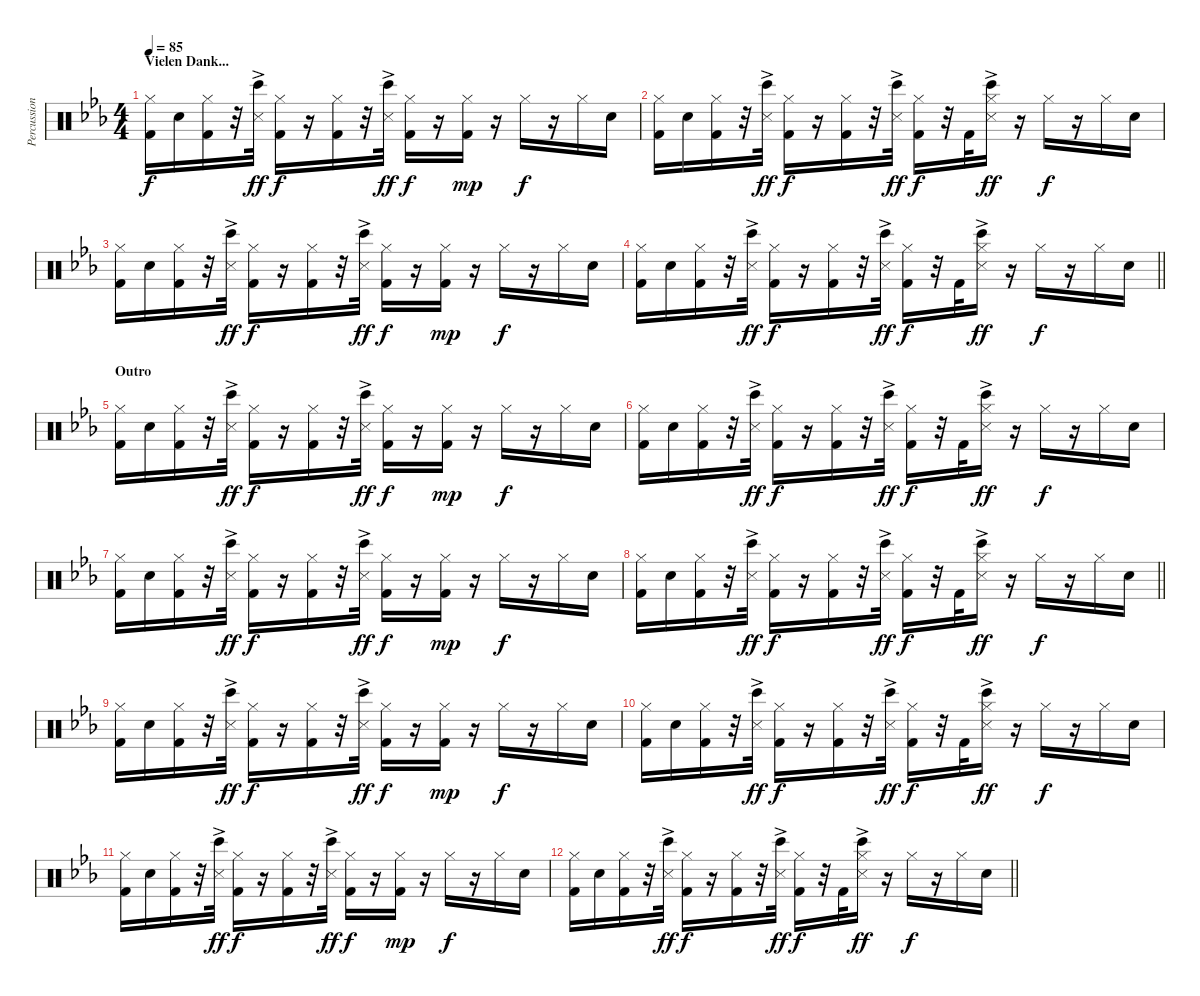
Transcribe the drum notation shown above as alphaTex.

\track ("Percussion" "Percussion") {instrument percussion}
\staff {score}
\articulation defaults
\ts (4 4)
\section ("" "Vielen Dank...")
\tempo 85
\clef neutral
\ks cminor
("Hi-Hat (closed)" "Kick (hit) 2").16{dy f} "Snare (hit) 2".16 ("Hi-Hat (closed)" "Kick (hit) 2").16 r.32 ("Bongo High (hit)" "Metronome (hit)"{ac}).32{dy ff} ("Hi-Hat (closed)" "Kick (hit) 2").16{dy f} r.16 ("Hi-Hat (closed)" "Kick (hit) 2").16 r.32 ("Bongo High (hit)" "Metronome (hit)"{ac}).32{dy ff} ("Hi-Hat (closed)" "Kick (hit) 2").16{dy f} r.16 ("Hi-Hat (closed)" "Kick (hit) 2").16{dy mp} r.16 "Hi-Hat (closed)".16{dy f} r.16 "Hi-Hat (closed)".16 "Snare (hit) 2".16 |
("Hi-Hat (closed)" "Kick (hit) 2").16 "Snare (hit) 2".16 ("Hi-Hat (closed)" "Kick (hit) 2").16 r.32 ("Bongo High (hit)" "Metronome (hit)"{ac}).32{dy ff} ("Hi-Hat (closed)" "Kick (hit) 2").16{dy f} r.16 ("Hi-Hat (closed)" "Kick (hit) 2").16 r.32 ("Bongo High (hit)" "Metronome (hit)"{ac}).32{dy ff} ("Hi-Hat (closed)" "Kick (hit) 2").16{dy f} r.32 "Kick (hit) 2".32 ("Hi-Hat (closed)" "Bongo High (hit)" "Metronome (hit)"{ac}).16{dy ff} r.16 "Hi-Hat (closed)".16{dy f} r.16 "Hi-Hat (closed)".16 "Snare (hit) 2".16 |
("Hi-Hat (closed)" "Kick (hit) 2").16 "Snare (hit) 2".16 ("Hi-Hat (closed)" "Kick (hit) 2").16 r.32 ("Bongo High (hit)" "Metronome (hit)"{ac}).32{dy ff} ("Hi-Hat (closed)" "Kick (hit) 2").16{dy f} r.16 ("Hi-Hat (closed)" "Kick (hit) 2").16 r.32 ("Bongo High (hit)" "Metronome (hit)"{ac}).32{dy ff} ("Hi-Hat (closed)" "Kick (hit) 2").16{dy f} r.16 ("Hi-Hat (closed)" "Kick (hit) 2").16{dy mp} r.16 "Hi-Hat (closed)".16{dy f} r.16 "Hi-Hat (closed)".16 "Snare (hit) 2".16 |
\barLineRight lightlight
("Hi-Hat (closed)" "Kick (hit) 2").16 "Snare (hit) 2".16 ("Hi-Hat (closed)" "Kick (hit) 2").16 r.32 ("Bongo High (hit)" "Metronome (hit)"{ac}).32{dy ff} ("Hi-Hat (closed)" "Kick (hit) 2").16{dy f} r.16 ("Hi-Hat (closed)" "Kick (hit) 2").16 r.32 ("Bongo High (hit)" "Metronome (hit)"{ac}).32{dy ff} ("Hi-Hat (closed)" "Kick (hit) 2").16{dy f} r.32 "Kick (hit) 2".32 ("Hi-Hat (closed)" "Bongo High (hit)" "Metronome (hit)"{ac}).16{dy ff} r.16 "Hi-Hat (closed)".16{dy f} r.16 "Hi-Hat (closed)".16 "Snare (hit) 2".16 |
\section ("" "Outro")
("Hi-Hat (closed)" "Kick (hit) 2").16 "Snare (hit) 2".16 ("Hi-Hat (closed)" "Kick (hit) 2").16 r.32 ("Bongo High (hit)" "Metronome (hit)"{ac}).32{dy ff} ("Hi-Hat (closed)" "Kick (hit) 2").16{dy f} r.16 ("Hi-Hat (closed)" "Kick (hit) 2").16 r.32 ("Bongo High (hit)" "Metronome (hit)"{ac}).32{dy ff} ("Hi-Hat (closed)" "Kick (hit) 2").16{dy f} r.16 ("Hi-Hat (closed)" "Kick (hit) 2").16{dy mp} r.16 "Hi-Hat (closed)".16{dy f} r.16 "Hi-Hat (closed)".16 "Snare (hit) 2".16 |
("Hi-Hat (closed)" "Kick (hit) 2").16 "Snare (hit) 2".16 ("Hi-Hat (closed)" "Kick (hit) 2").16 r.32 ("Bongo High (hit)" "Metronome (hit)"{ac}).32{dy ff} ("Hi-Hat (closed)" "Kick (hit) 2").16{dy f} r.16 ("Hi-Hat (closed)" "Kick (hit) 2").16 r.32 ("Bongo High (hit)" "Metronome (hit)"{ac}).32{dy ff} ("Hi-Hat (closed)" "Kick (hit) 2").16{dy f} r.32 "Kick (hit) 2".32 ("Hi-Hat (closed)" "Bongo High (hit)" "Metronome (hit)"{ac}).16{dy ff} r.16 "Hi-Hat (closed)".16{dy f} r.16 "Hi-Hat (closed)".16 "Snare (hit) 2".16 |
("Hi-Hat (closed)" "Kick (hit) 2").16 "Snare (hit) 2".16 ("Hi-Hat (closed)" "Kick (hit) 2").16 r.32 ("Bongo High (hit)" "Metronome (hit)"{ac}).32{dy ff} ("Hi-Hat (closed)" "Kick (hit) 2").16{dy f} r.16 ("Hi-Hat (closed)" "Kick (hit) 2").16 r.32 ("Bongo High (hit)" "Metronome (hit)"{ac}).32{dy ff} ("Hi-Hat (closed)" "Kick (hit) 2").16{dy f} r.16 ("Hi-Hat (closed)" "Kick (hit) 2").16{dy mp} r.16 "Hi-Hat (closed)".16{dy f} r.16 "Hi-Hat (closed)".16 "Snare (hit) 2".16 |
\barLineRight lightlight
("Hi-Hat (closed)" "Kick (hit) 2").16 "Snare (hit) 2".16 ("Hi-Hat (closed)" "Kick (hit) 2").16 r.32 ("Bongo High (hit)" "Metronome (hit)"{ac}).32{dy ff} ("Hi-Hat (closed)" "Kick (hit) 2").16{dy f} r.16 ("Hi-Hat (closed)" "Kick (hit) 2").16 r.32 ("Bongo High (hit)" "Metronome (hit)"{ac}).32{dy ff} ("Hi-Hat (closed)" "Kick (hit) 2").16{dy f} r.32 "Kick (hit) 2".32 ("Hi-Hat (closed)" "Bongo High (hit)" "Metronome (hit)"{ac}).16{dy ff} r.16 "Hi-Hat (closed)".16{dy f} r.16 "Hi-Hat (closed)".16 "Snare (hit) 2".16 |
("Hi-Hat (closed)" "Kick (hit) 2").16 "Snare (hit) 2".16 ("Hi-Hat (closed)" "Kick (hit) 2").16 r.32 ("Bongo High (hit)" "Metronome (hit)"{ac}).32{dy ff} ("Hi-Hat (closed)" "Kick (hit) 2").16{dy f} r.16 ("Hi-Hat (closed)" "Kick (hit) 2").16 r.32 ("Bongo High (hit)" "Metronome (hit)"{ac}).32{dy ff} ("Hi-Hat (closed)" "Kick (hit) 2").16{dy f} r.16 ("Hi-Hat (closed)" "Kick (hit) 2").16{dy mp} r.16 "Hi-Hat (closed)".16{dy f} r.16 "Hi-Hat (closed)".16 "Snare (hit) 2".16 |
("Hi-Hat (closed)" "Kick (hit) 2").16 "Snare (hit) 2".16 ("Hi-Hat (closed)" "Kick (hit) 2").16 r.32 ("Bongo High (hit)" "Metronome (hit)"{ac}).32{dy ff} ("Hi-Hat (closed)" "Kick (hit) 2").16{dy f} r.16 ("Hi-Hat (closed)" "Kick (hit) 2").16 r.32 ("Bongo High (hit)" "Metronome (hit)"{ac}).32{dy ff} ("Hi-Hat (closed)" "Kick (hit) 2").16{dy f} r.32 "Kick (hit) 2".32 ("Hi-Hat (closed)" "Bongo High (hit)" "Metronome (hit)"{ac}).16{dy ff} r.16 "Hi-Hat (closed)".16{dy f} r.16 "Hi-Hat (closed)".16 "Snare (hit) 2".16 |
("Hi-Hat (closed)" "Kick (hit) 2").16 "Snare (hit) 2".16 ("Hi-Hat (closed)" "Kick (hit) 2").16 r.32 ("Bongo High (hit)" "Metronome (hit)"{ac}).32{dy ff} ("Hi-Hat (closed)" "Kick (hit) 2").16{dy f} r.16 ("Hi-Hat (closed)" "Kick (hit) 2").16 r.32 ("Bongo High (hit)" "Metronome (hit)"{ac}).32{dy ff} ("Hi-Hat (closed)" "Kick (hit) 2").16{dy f} r.16 ("Hi-Hat (closed)" "Kick (hit) 2").16{dy mp} r.16 "Hi-Hat (closed)".16{dy f} r.16 "Hi-Hat (closed)".16 "Snare (hit) 2".16 |
\barLineRight lightlight
("Hi-Hat (closed)" "Kick (hit) 2").16 "Snare (hit) 2".16 ("Hi-Hat (closed)" "Kick (hit) 2").16 r.32 ("Bongo High (hit)" "Metronome (hit)"{ac}).32{dy ff} ("Hi-Hat (closed)" "Kick (hit) 2").16{dy f} r.16 ("Hi-Hat (closed)" "Kick (hit) 2").16 r.32 ("Bongo High (hit)" "Metronome (hit)"{ac}).32{dy ff} ("Hi-Hat (closed)" "Kick (hit) 2").16{dy f} r.32 "Kick (hit) 2".32 ("Hi-Hat (closed)" "Bongo High (hit)" "Metronome (hit)"{ac}).16{dy ff} r.16 "Hi-Hat (closed)".16{dy f} r.16 "Hi-Hat (closed)".16 "Snare (hit) 2".16
